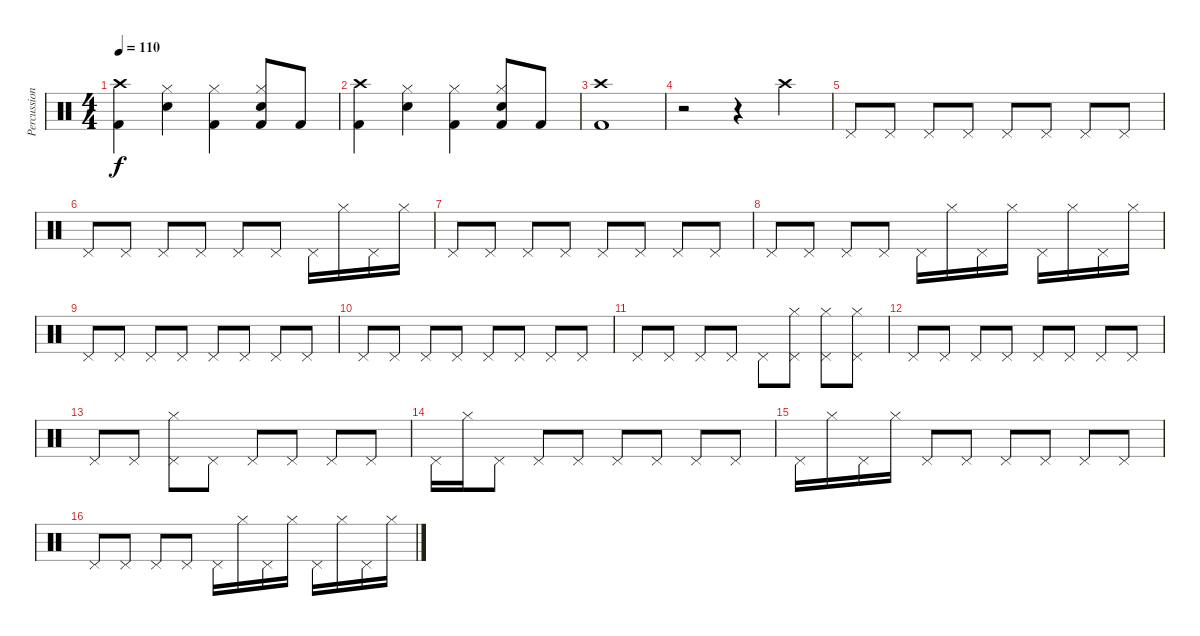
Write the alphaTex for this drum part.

\track ("Percussion" "Percussion") {instrument percussion}
\staff {score}
\articulation defaults
\ts (4 4)
\tempo 110
\clef neutral
\ks c
("Crash high (hit)" "Kick (hit) 2").4{dy f} ("Hi-Hat (closed)" "Snare (hit) 2").4 ("Hi-Hat (closed)" "Kick (hit) 2").4 ("Hi-Hat (closed)" "Snare (hit) 2" "Kick (hit) 2").8 "Kick (hit) 2".8 |
("Crash high (hit)" "Kick (hit) 2").4 ("Hi-Hat (closed)" "Snare (hit) 2").4 ("Hi-Hat (closed)" "Kick (hit) 2").4 ("Hi-Hat (closed)" "Snare (hit) 2" "Kick (hit) 2").8 "Kick (hit) 2".8 |
("Crash high (hit)" "Kick (hit) 2").1 |
r.2 r.4 "Crash high (hit)".4 |
"Pedal Hi-Hat (hit)".8 "Pedal Hi-Hat (hit)".8 "Pedal Hi-Hat (hit)".8 "Pedal Hi-Hat (hit)".8 "Pedal Hi-Hat (hit)".8 "Pedal Hi-Hat (hit)".8 "Pedal Hi-Hat (hit)".8 "Pedal Hi-Hat (hit)".8 |
"Pedal Hi-Hat (hit)".8 "Pedal Hi-Hat (hit)".8 "Pedal Hi-Hat (hit)".8 "Pedal Hi-Hat (hit)".8 "Pedal Hi-Hat (hit)".8 "Pedal Hi-Hat (hit)".8 "Pedal Hi-Hat (hit)".16 "Hi-Hat (closed)".16 "Pedal Hi-Hat (hit)".16 "Hi-Hat (closed)".16 |
"Pedal Hi-Hat (hit)".8 "Pedal Hi-Hat (hit)".8 "Pedal Hi-Hat (hit)".8 "Pedal Hi-Hat (hit)".8 "Pedal Hi-Hat (hit)".8 "Pedal Hi-Hat (hit)".8 "Pedal Hi-Hat (hit)".8 "Pedal Hi-Hat (hit)".8 |
"Pedal Hi-Hat (hit)".8 "Pedal Hi-Hat (hit)".8 "Pedal Hi-Hat (hit)".8 "Pedal Hi-Hat (hit)".8 "Pedal Hi-Hat (hit)".16 "Hi-Hat (closed)".16 "Pedal Hi-Hat (hit)".16 "Hi-Hat (closed)".16 "Pedal Hi-Hat (hit)".16 "Hi-Hat (closed)".16 "Pedal Hi-Hat (hit)".16 "Hi-Hat (closed)".16 |
"Pedal Hi-Hat (hit)".8 "Pedal Hi-Hat (hit)".8 "Pedal Hi-Hat (hit)".8 "Pedal Hi-Hat (hit)".8 "Pedal Hi-Hat (hit)".8 "Pedal Hi-Hat (hit)".8 "Pedal Hi-Hat (hit)".8 "Pedal Hi-Hat (hit)".8 |
"Pedal Hi-Hat (hit)".8 "Pedal Hi-Hat (hit)".8 "Pedal Hi-Hat (hit)".8 "Pedal Hi-Hat (hit)".8 "Pedal Hi-Hat (hit)".8 "Pedal Hi-Hat (hit)".8 "Pedal Hi-Hat (hit)".8 "Pedal Hi-Hat (hit)".8 |
"Pedal Hi-Hat (hit)".8 "Pedal Hi-Hat (hit)".8 "Pedal Hi-Hat (hit)".8 "Pedal Hi-Hat (hit)".8 "Pedal Hi-Hat (hit)".8 ("Hi-Hat (closed)" "Pedal Hi-Hat (hit)").8 ("Hi-Hat (closed)" "Pedal Hi-Hat (hit)").8 ("Hi-Hat (closed)" "Pedal Hi-Hat (hit)").8 |
"Pedal Hi-Hat (hit)".8 "Pedal Hi-Hat (hit)".8 "Pedal Hi-Hat (hit)".8 "Pedal Hi-Hat (hit)".8 "Pedal Hi-Hat (hit)".8 "Pedal Hi-Hat (hit)".8 "Pedal Hi-Hat (hit)".8 "Pedal Hi-Hat (hit)".8 |
"Pedal Hi-Hat (hit)".8 "Pedal Hi-Hat (hit)".8 ("Hi-Hat (closed)" "Pedal Hi-Hat (hit)").8 "Pedal Hi-Hat (hit)".8 "Pedal Hi-Hat (hit)".8 "Pedal Hi-Hat (hit)".8 "Pedal Hi-Hat (hit)".8 "Pedal Hi-Hat (hit)".8 |
"Pedal Hi-Hat (hit)".16 "Hi-Hat (closed)".16 "Pedal Hi-Hat (hit)".8 "Pedal Hi-Hat (hit)".8 "Pedal Hi-Hat (hit)".8 "Pedal Hi-Hat (hit)".8 "Pedal Hi-Hat (hit)".8 "Pedal Hi-Hat (hit)".8 "Pedal Hi-Hat (hit)".8 |
"Pedal Hi-Hat (hit)".16 "Hi-Hat (closed)".16 "Pedal Hi-Hat (hit)".16 "Hi-Hat (closed)".16 "Pedal Hi-Hat (hit)".8 "Pedal Hi-Hat (hit)".8 "Pedal Hi-Hat (hit)".8 "Pedal Hi-Hat (hit)".8 "Pedal Hi-Hat (hit)".8 "Pedal Hi-Hat (hit)".8 |
"Pedal Hi-Hat (hit)".8 "Pedal Hi-Hat (hit)".8 "Pedal Hi-Hat (hit)".8 "Pedal Hi-Hat (hit)".8 "Pedal Hi-Hat (hit)".16 "Hi-Hat (closed)".16 "Pedal Hi-Hat (hit)".16 "Hi-Hat (closed)".16 "Pedal Hi-Hat (hit)".16 "Hi-Hat (closed)".16 "Pedal Hi-Hat (hit)".16 "Hi-Hat (closed)".16
